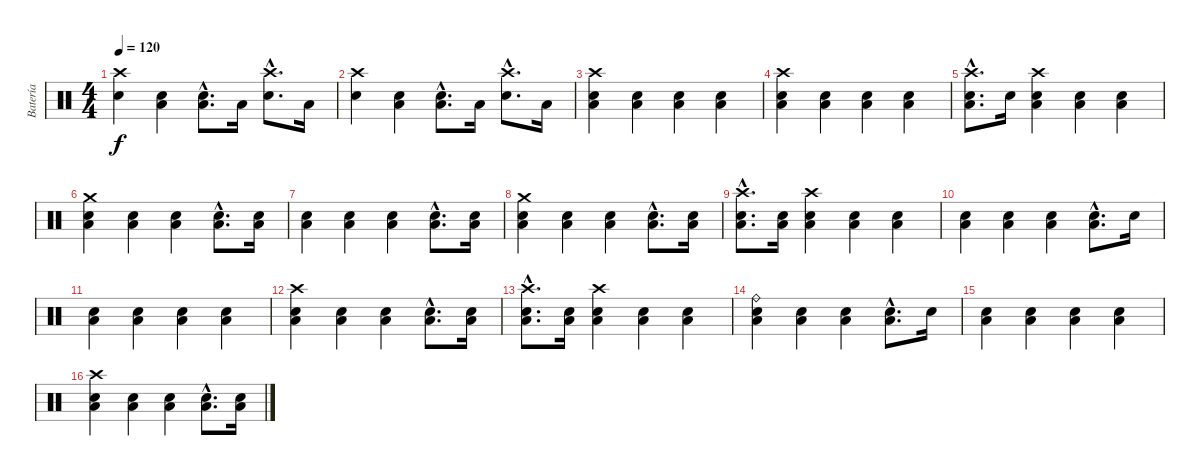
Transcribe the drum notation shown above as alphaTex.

\track ("Batería" "Batería") {instrument percussion}
\staff {score}
\articulation defaults
\ts (4 4)
\tempo 120
\clef neutral
\ks c
("Crash high (hit)" "Electric Snare (hit)").4{dy f} ("Low Tom (hit)" "Electric Snare (hit)").4 ("Low Tom (hit)"{hac} "Electric Snare (hit)"{hac}).8{d} "Low Tom (hit)".16 ("Crash high (hit)"{hac} "Electric Snare (hit)"{hac}).8{d} "Low Tom (hit)".16 |
("Crash high (hit)" "Electric Snare (hit)").4 ("Low Tom (hit)" "Electric Snare (hit)").4 ("Low Tom (hit)"{hac} "Electric Snare (hit)"{hac}).8{d} "Low Tom (hit)".16 ("Crash high (hit)"{hac} "Electric Snare (hit)"{hac}).8{d} "Low Tom (hit)".16 |
("Crash high (hit)" "Low Tom (hit)" "Electric Snare (hit)").4 ("Low Tom (hit)" "Electric Snare (hit)").4 ("Low Tom (hit)" "Electric Snare (hit)").4 ("Low Tom (hit)" "Electric Snare (hit)").4 |
("Crash high (hit)" "Low Tom (hit)" "Electric Snare (hit)").4 ("Low Tom (hit)" "Electric Snare (hit)").4 ("Low Tom (hit)" "Electric Snare (hit)").4 ("Low Tom (hit)" "Electric Snare (hit)").4 |
("Crash high (hit)"{hac} "Low Tom (hit)"{hac} "Electric Snare (hit)"{hac}).8{d} "Electric Snare (hit)".16 ("Crash high (hit)" "Low Tom (hit)" "Electric Snare (hit)").4 ("Low Tom (hit)" "Electric Snare (hit)").4 ("Low Tom (hit)" "Electric Snare (hit)").4 |
("Crash medium (hit)" "Low Tom (hit)" "Electric Snare (hit)").4 ("Low Tom (hit)" "Electric Snare (hit)").4 ("Low Tom (hit)" "Electric Snare (hit)").4 ("Low Tom (hit)"{hac} "Electric Snare (hit)"{hac}).8{d} ("Low Tom (hit)" "Electric Snare (hit)").16 |
("Low Tom (hit)" "Electric Snare (hit)").4 ("Low Tom (hit)" "Electric Snare (hit)").4 ("Low Tom (hit)" "Electric Snare (hit)").4 ("Low Tom (hit)"{hac} "Electric Snare (hit)"{hac}).8{d} ("Low Tom (hit)" "Electric Snare (hit)").16 |
("Crash medium (hit)" "Low Tom (hit)" "Electric Snare (hit)").4 ("Low Tom (hit)" "Electric Snare (hit)").4 ("Low Tom (hit)" "Electric Snare (hit)").4 ("Low Tom (hit)"{hac} "Electric Snare (hit)"{hac}).8{d} ("Low Tom (hit)" "Electric Snare (hit)").16 |
("Crash high (hit)"{hac} "Low Tom (hit)"{hac} "Electric Snare (hit)"{hac}).8{d} ("Low Tom (hit)" "Electric Snare (hit)").16 ("Crash high (hit)" "Low Tom (hit)" "Electric Snare (hit)").4 ("Low Tom (hit)" "Electric Snare (hit)").4 ("Low Tom (hit)" "Electric Snare (hit)").4 |
("Low Tom (hit)" "Electric Snare (hit)").4 ("Low Tom (hit)" "Electric Snare (hit)").4 ("Low Tom (hit)" "Electric Snare (hit)").4 ("Low Tom (hit)"{hac} "Electric Snare (hit)"{hac}).8{d} "Electric Snare (hit)".16 |
("Low Tom (hit)" "Electric Snare (hit)").4 ("Low Tom (hit)" "Electric Snare (hit)").4 ("Low Tom (hit)" "Electric Snare (hit)").4 ("Low Tom (hit)" "Electric Snare (hit)").4 |
("Crash high (hit)" "Low Tom (hit)" "Electric Snare (hit)").4 ("Low Tom (hit)" "Electric Snare (hit)").4 ("Low Tom (hit)" "Electric Snare (hit)").4 ("Low Tom (hit)"{hac} "Electric Snare (hit)"{hac}).8{d} ("Low Tom (hit)" "Electric Snare (hit)").16 |
("Crash high (hit)"{hac} "Low Tom (hit)"{hac} "Electric Snare (hit)"{hac}).8{d} ("Low Tom (hit)" "Electric Snare (hit)").16 ("Crash high (hit)" "Low Tom (hit)" "Electric Snare (hit)").4 ("Low Tom (hit)" "Electric Snare (hit)").4 ("Low Tom (hit)" "Electric Snare (hit)").4 |
("Ride (bell)" "Low Tom (hit)" "Electric Snare (hit)").4 ("Low Tom (hit)" "Electric Snare (hit)").4 ("Low Tom (hit)" "Electric Snare (hit)").4 ("Low Tom (hit)"{hac} "Electric Snare (hit)"{hac}).8{d} "Electric Snare (hit)".16 |
("Low Tom (hit)" "Electric Snare (hit)").4 ("Low Tom (hit)" "Electric Snare (hit)").4 ("Low Tom (hit)" "Electric Snare (hit)").4 ("Low Tom (hit)" "Electric Snare (hit)").4 |
("Crash high (hit)" "Low Tom (hit)" "Electric Snare (hit)").4 ("Low Tom (hit)" "Electric Snare (hit)").4 ("Low Tom (hit)" "Electric Snare (hit)").4 ("Low Tom (hit)"{hac} "Electric Snare (hit)"{hac}).8{d} ("Low Tom (hit)" "Electric Snare (hit)").16
